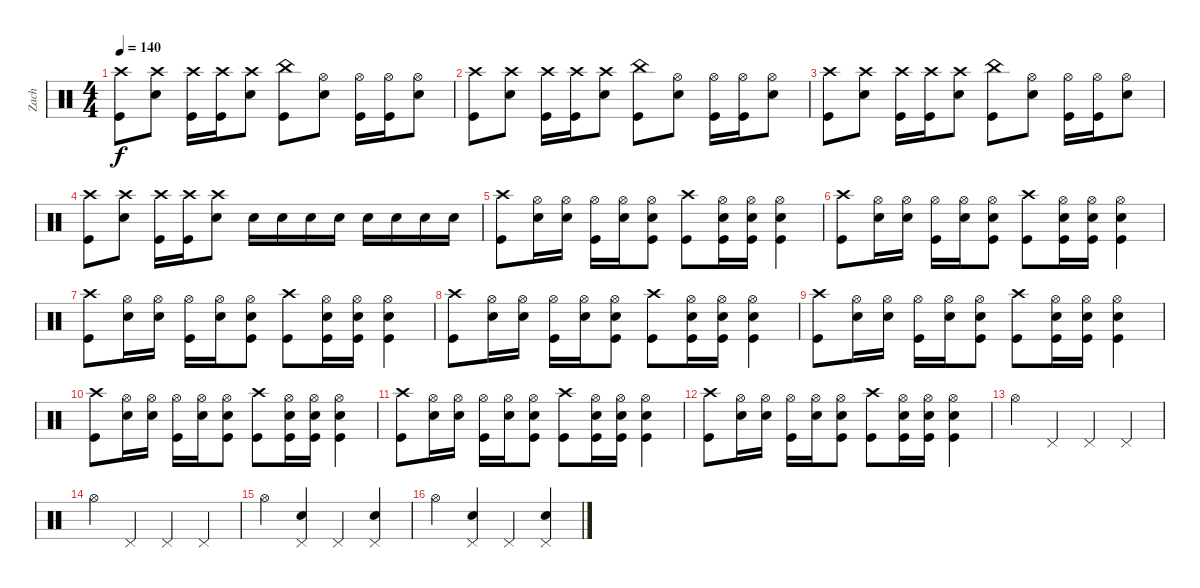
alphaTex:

\track ("Zach" "Zach") {instrument percussion}
\staff {score}
\articulation defaults
\ts (4 4)
\tempo 140
\clef neutral
\ks c
("Kick (hit)" "Crash high (hit)").8{dy f} ("Snare (hit) 2" "Crash high (hit)").8 ("Kick (hit)" "Crash high (hit)").16 ("Kick (hit)" "Crash high (hit)").16 ("Snare (hit) 2" "Crash high (hit)").8 ("Kick (hit)" "China (hit)").8 ("Snare (hit) 2" "Hi-Hat (open)").8 ("Kick (hit)" "Hi-Hat (open)").16 ("Kick (hit)" "Hi-Hat (open)").16 ("Snare (hit) 2" "Hi-Hat (open)").8 |
("Kick (hit)" "Crash high (hit)").8 ("Snare (hit) 2" "Crash high (hit)").8 ("Kick (hit)" "Crash high (hit)").16 ("Kick (hit)" "Crash high (hit)").16 ("Snare (hit) 2" "Crash high (hit)").8 ("Kick (hit)" "China (hit)").8 ("Snare (hit) 2" "Hi-Hat (open)").8 ("Kick (hit)" "Hi-Hat (open)").16 ("Kick (hit)" "Hi-Hat (open)").16 ("Snare (hit) 2" "Hi-Hat (open)").8 |
("Kick (hit)" "Crash high (hit)").8 ("Snare (hit) 2" "Crash high (hit)").8 ("Kick (hit)" "Crash high (hit)").16 ("Kick (hit)" "Crash high (hit)").16 ("Snare (hit) 2" "Crash high (hit)").8 ("Kick (hit)" "China (hit)").8 ("Snare (hit) 2" "Hi-Hat (open)").8 ("Kick (hit)" "Hi-Hat (open)").16 ("Kick (hit)" "Hi-Hat (open)").16 ("Snare (hit) 2" "Hi-Hat (open)").8 |
("Kick (hit)" "Crash high (hit)").8 ("Snare (hit) 2" "Crash high (hit)").8 ("Kick (hit)" "Crash high (hit)").16 ("Kick (hit)" "Crash high (hit)").16 ("Snare (hit) 2" "Crash high (hit)").8 "Snare (hit) 2".16 "Snare (hit) 2".16 "Snare (hit) 2".16 "Snare (hit) 2".16 "Snare (hit) 2".16 "Snare (hit) 2".16 "Snare (hit) 2".16 "Snare (hit) 2".16 |
("Kick (hit)" "Crash high (hit)").8 ("Snare (hit) 2" "Hi-Hat (open)").16 ("Snare (hit) 2" "Hi-Hat (open)").16 ("Kick (hit)" "Hi-Hat (open)").16 ("Snare (hit) 2" "Hi-Hat (open)").16 ("Kick (hit)" "Snare (hit) 2" "Hi-Hat (open)").8 ("Kick (hit)" "Crash high (hit)").8 ("Kick (hit)" "Snare (hit) 2" "Hi-Hat (open)").16 ("Kick (hit)" "Snare (hit) 2" "Hi-Hat (open)").16 ("Kick (hit)" "Snare (hit) 2" "Hi-Hat (open)").4 |
("Kick (hit)" "Crash high (hit)").8 ("Snare (hit) 2" "Hi-Hat (open)").16 ("Snare (hit) 2" "Hi-Hat (open)").16 ("Kick (hit)" "Hi-Hat (open)").16 ("Snare (hit) 2" "Hi-Hat (open)").16 ("Kick (hit)" "Snare (hit) 2" "Hi-Hat (open)").8 ("Kick (hit)" "Crash high (hit)").8 ("Kick (hit)" "Snare (hit) 2" "Hi-Hat (open)").16 ("Kick (hit)" "Snare (hit) 2" "Hi-Hat (open)").16 ("Kick (hit)" "Snare (hit) 2" "Hi-Hat (open)").4 |
("Kick (hit)" "Crash high (hit)").8 ("Snare (hit) 2" "Hi-Hat (open)").16 ("Snare (hit) 2" "Hi-Hat (open)").16 ("Kick (hit)" "Hi-Hat (open)").16 ("Snare (hit) 2" "Hi-Hat (open)").16 ("Kick (hit)" "Snare (hit) 2" "Hi-Hat (open)").8 ("Kick (hit)" "Crash high (hit)").8 ("Kick (hit)" "Snare (hit) 2" "Hi-Hat (open)").16 ("Kick (hit)" "Snare (hit) 2" "Hi-Hat (open)").16 ("Kick (hit)" "Snare (hit) 2" "Hi-Hat (open)").4 |
("Kick (hit)" "Crash high (hit)").8 ("Snare (hit) 2" "Hi-Hat (open)").16 ("Snare (hit) 2" "Hi-Hat (open)").16 ("Kick (hit)" "Hi-Hat (open)").16 ("Snare (hit) 2" "Hi-Hat (open)").16 ("Kick (hit)" "Snare (hit) 2" "Hi-Hat (open)").8 ("Kick (hit)" "Crash high (hit)").8 ("Kick (hit)" "Snare (hit) 2" "Hi-Hat (open)").16 ("Kick (hit)" "Snare (hit) 2" "Hi-Hat (open)").16 ("Kick (hit)" "Snare (hit) 2" "Hi-Hat (open)").4 |
("Kick (hit)" "Crash high (hit)").8 ("Snare (hit) 2" "Hi-Hat (open)").16 ("Snare (hit) 2" "Hi-Hat (open)").16 ("Kick (hit)" "Hi-Hat (open)").16 ("Snare (hit) 2" "Hi-Hat (open)").16 ("Kick (hit)" "Snare (hit) 2" "Hi-Hat (open)").8 ("Kick (hit)" "Crash high (hit)").8 ("Kick (hit)" "Snare (hit) 2" "Hi-Hat (open)").16 ("Kick (hit)" "Snare (hit) 2" "Hi-Hat (open)").16 ("Kick (hit)" "Snare (hit) 2" "Hi-Hat (open)").4 |
("Kick (hit)" "Crash high (hit)").8 ("Snare (hit) 2" "Hi-Hat (open)").16 ("Snare (hit) 2" "Hi-Hat (open)").16 ("Kick (hit)" "Hi-Hat (open)").16 ("Snare (hit) 2" "Hi-Hat (open)").16 ("Kick (hit)" "Snare (hit) 2" "Hi-Hat (open)").8 ("Kick (hit)" "Crash high (hit)").8 ("Kick (hit)" "Snare (hit) 2" "Hi-Hat (open)").16 ("Kick (hit)" "Snare (hit) 2" "Hi-Hat (open)").16 ("Kick (hit)" "Snare (hit) 2" "Hi-Hat (open)").4 |
("Kick (hit)" "Crash high (hit)").8 ("Snare (hit) 2" "Hi-Hat (open)").16 ("Snare (hit) 2" "Hi-Hat (open)").16 ("Kick (hit)" "Hi-Hat (open)").16 ("Snare (hit) 2" "Hi-Hat (open)").16 ("Kick (hit)" "Snare (hit) 2" "Hi-Hat (open)").8 ("Kick (hit)" "Crash high (hit)").8 ("Kick (hit)" "Snare (hit) 2" "Hi-Hat (open)").16 ("Kick (hit)" "Snare (hit) 2" "Hi-Hat (open)").16 ("Kick (hit)" "Snare (hit) 2" "Hi-Hat (open)").4 |
("Kick (hit)" "Crash high (hit)").8 ("Snare (hit) 2" "Hi-Hat (open)").16 ("Snare (hit) 2" "Hi-Hat (open)").16 ("Kick (hit)" "Hi-Hat (open)").16 ("Snare (hit) 2" "Hi-Hat (open)").16 ("Kick (hit)" "Snare (hit) 2" "Hi-Hat (open)").8 ("Kick (hit)" "Crash high (hit)").8 ("Kick (hit)" "Snare (hit) 2" "Hi-Hat (open)").16 ("Kick (hit)" "Snare (hit) 2" "Hi-Hat (open)").16 ("Kick (hit)" "Snare (hit) 2" "Hi-Hat (open)").4 |
"Hi-Hat (open)".4 "Pedal Hi-Hat (hit)".4 "Pedal Hi-Hat (hit)".4 "Pedal Hi-Hat (hit)".4 |
"Hi-Hat (open)".4 "Pedal Hi-Hat (hit)".4 "Pedal Hi-Hat (hit)".4 "Pedal Hi-Hat (hit)".4 |
"Hi-Hat (open)".4 ("Pedal Hi-Hat (hit)" "Snare (hit) 2").4 "Pedal Hi-Hat (hit)".4 ("Pedal Hi-Hat (hit)" "Snare (hit) 2").4 |
"Hi-Hat (open)".4 ("Pedal Hi-Hat (hit)" "Snare (hit) 2").4 "Pedal Hi-Hat (hit)".4 ("Pedal Hi-Hat (hit)" "Snare (hit) 2").4
